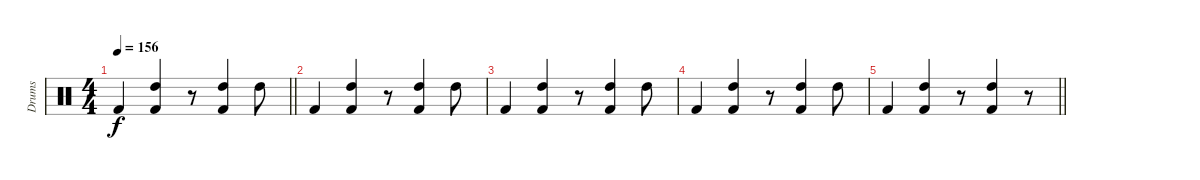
\track ("Drums" "Drums") {instrument percussion}
\staff
\articulation defaults
\ts (4 4)
\tempo 156
\clef neutral
\barLineRight lightlight
\ks c "Kick (hit) 2".4{dy f}
("High Tom (hit)" "Kick (hit) 2").4 r.8 ("High Tom (hit)" "Kick (hit) 2").4 "High Tom (hit)".8 |
"Kick (hit) 2".4 ("High Tom (hit)" "Kick (hit) 2").4 r.8 ("High Tom (hit)" "Kick (hit) 2").4 "High Tom (hit)".8 |
"Kick (hit) 2".4 ("High Tom (hit)" "Kick (hit) 2").4 r.8 ("High Tom (hit)" "Kick (hit) 2").4 "High Tom (hit)".8 |
"Kick (hit) 2".4 ("High Tom (hit)" "Kick (hit) 2").4 r.8 ("High Tom (hit)" "Kick (hit) 2").4 "High Tom (hit)".8 |
\barLineRight lightlight "Kick (hit) 2".4
("High Tom (hit)" "Kick (hit) 2").4 r.8 ("High Tom (hit)" "Kick (hit) 2").4 r.8
